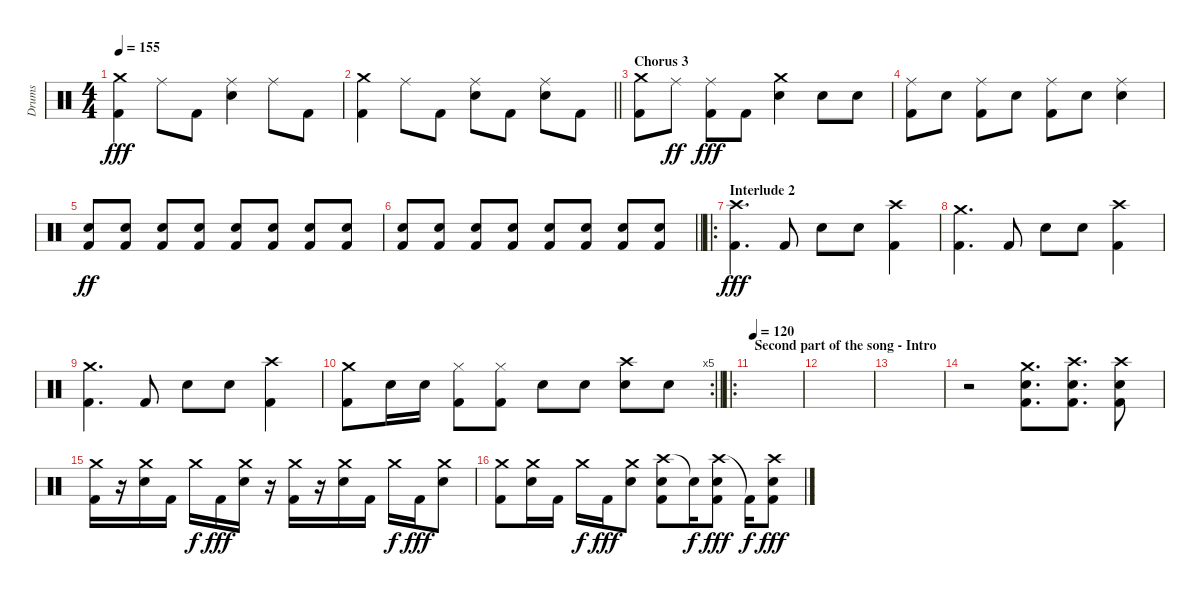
\track ("Drums" "Drums") {instrument percussion}
\staff {score}
\articulation defaults
\ts (4 4)
\tempo 155
\clef neutral
\ks c
("Crash medium (hit)" "Kick (hit) 2").4{dy fff} "Ride (middle)".8 "Kick (hit) 2".8 ("Ride (middle)" "Electric Snare (hit)").4 "Ride (middle)".8 "Kick (hit) 2".8 |
\barLineRight lightlight
("Crash medium (hit)" "Kick (hit) 2").4 "Ride (middle)".8 "Kick (hit) 2".8 ("Ride (middle)" "Electric Snare (hit)").8 "Kick (hit) 2".8 ("Ride (middle)" "Electric Snare (hit)").8 "Kick (hit) 2".8 |
\section ("" "Chorus 3")
("Crash medium (hit)" "Kick (hit) 2").8 "Ride (middle)".8{dy ff} ("Ride (middle)" "Kick (hit) 2").8{dy fff} "Kick (hit) 2".8 ("Crash medium (hit)" "Electric Snare (hit)").4 "Electric Snare (hit)".8 "Electric Snare (hit)".8 |
("Ride (middle)" "Kick (hit) 2").8 "Electric Snare (hit)".8 ("Ride (middle)" "Kick (hit) 2").8 "Electric Snare (hit)".8 ("Ride (middle)" "Kick (hit) 2").8 "Electric Snare (hit)".8 ("Ride (middle)" "Electric Snare (hit)").4 |
("Electric Snare (hit)" "Kick (hit) 2").8{dy ff} ("Electric Snare (hit)" "Kick (hit) 2").8 ("Electric Snare (hit)" "Kick (hit) 2").8 ("Electric Snare (hit)" "Kick (hit) 2").8 ("Electric Snare (hit)" "Kick (hit) 2").8 ("Electric Snare (hit)" "Kick (hit) 2").8 ("Electric Snare (hit)" "Kick (hit) 2").8 ("Electric Snare (hit)" "Kick (hit) 2").8 |
\barLineRight lightlight
("Electric Snare (hit)" "Kick (hit) 2").8 ("Electric Snare (hit)" "Kick (hit) 2").8 ("Electric Snare (hit)" "Kick (hit) 2").8 ("Electric Snare (hit)" "Kick (hit) 2").8 ("Electric Snare (hit)" "Kick (hit) 2").8 ("Electric Snare (hit)" "Kick (hit) 2").8 ("Electric Snare (hit)" "Kick (hit) 2").8 ("Electric Snare (hit)" "Kick (hit) 2").8 |
\ro
\section ("" "Interlude 2")
("Crash high (hit)" "Kick (hit) 2").4{d dy fff} "Kick (hit) 2".8 "Electric Snare (hit)".8 "Electric Snare (hit)".8 ("Crash high (hit)" "Kick (hit) 2").4 |
("Crash medium (hit)" "Kick (hit) 2").4{d} "Kick (hit) 2".8 "Electric Snare (hit)".8 "Electric Snare (hit)".8 ("Crash high (hit)" "Kick (hit) 2").4 |
("Crash medium (hit)" "Kick (hit) 2").4{d} "Kick (hit) 2".8 "Electric Snare (hit)".8 "Electric Snare (hit)".8 ("Crash high (hit)" "Kick (hit) 2").4 |
\rc 5
\barLineRight lightlight
("Crash medium (hit)" "Kick (hit) 2").8 "Electric Snare (hit)".16 "Electric Snare (hit)".16 ("Hi-Hat (closed)" "Kick (hit) 2").8 ("Hi-Hat (closed)" "Kick (hit) 2").8 "Electric Snare (hit)".8 "Electric Snare (hit)".8 ("Crash high (hit)" "Electric Snare (hit)").8 "Electric Snare (hit)".8 |
\ro
\section ("" "Second part of the song - Intro")
\tempo 120
|
|
|
r.2 ("Crash medium (hit)" "Electric Snare (hit)" "Kick (hit) 2").8{d} ("Crash high (hit)" "Electric Snare (hit)" "Kick (hit) 2").8{d} ("Crash high (hit)" "Electric Snare (hit)" "Kick (hit) 2").8 |
("Crash medium (hit)" "Kick (hit) 2").16 r.16 ("Crash medium (hit)" "Electric Snare (hit)").16 "Kick (hit) 2".16 "Crash medium (hit)".16{dy f} "Kick (hit) 2".16{dy fff} ("Crash medium (hit)" "Electric Snare (hit)").16 r.16 ("Crash medium (hit)" "Kick (hit) 2").16 r.16 ("Crash medium (hit)" "Electric Snare (hit)").16 "Kick (hit) 2".16 "Crash medium (hit)".16{dy f} "Kick (hit) 2".16{dy fff} ("Crash medium (hit)" "Electric Snare (hit)").8 |
("Crash medium (hit)" "Kick (hit) 2").8 ("Crash medium (hit)" "Electric Snare (hit)").16 "Kick (hit) 2".16 "Crash medium (hit)".16{dy f} "Kick (hit) 2".16{dy fff} ("Crash medium (hit)" "Electric Snare (hit)").8 ("Crash high (hit)" "Electric Snare (hit)" "Kick (hit) 2").8 "Electric Snare (hit)"{t}.16{dy f} ("Crash high (hit)" "Electric Snare (hit)" "Kick (hit) 2").8{dy fff} "Kick (hit) 2"{t}.16{dy f} ("Crash high (hit)" "Electric Snare (hit)" "Kick (hit) 2").8{dy fff}
